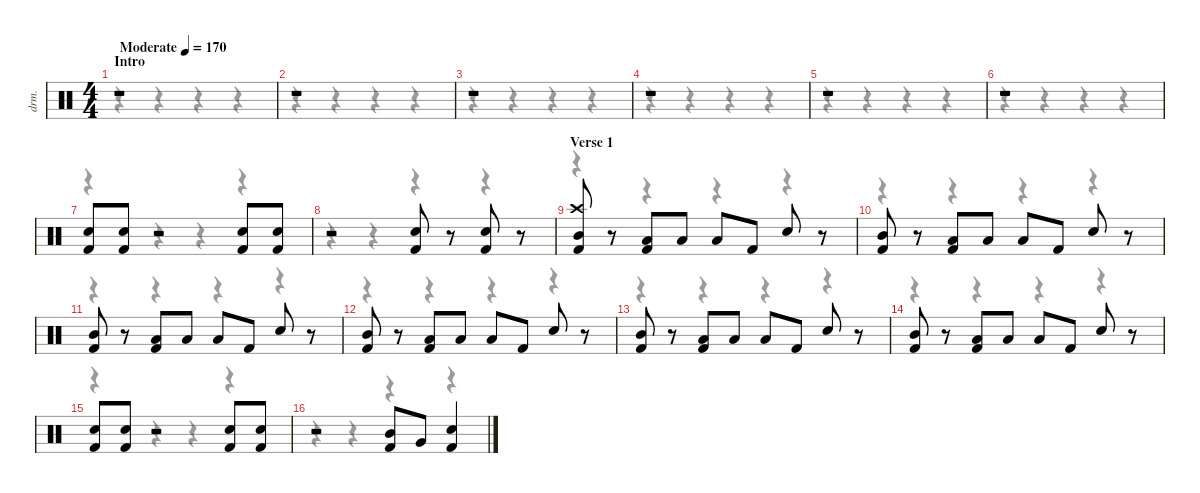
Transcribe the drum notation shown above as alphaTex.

\defaultSystemsLayout 4
\hideDynamics
\bracketExtendMode nobrackets
\otherSystemsTrackNameOrientation horizontal
\track ("Drums" "drm.") {instrument percussion}
\staff {score}
\articulation defaults
\voice
\ts (4 4)
\beaming (8 2 2 2 2)
\section ("" "Intro")
\tempo (170 "Moderate")
\clef neutral
\ks c
r.1{dy f beam Up} |
r.1{beam Up} |
r.1{beam Up} |
r.1{beam Up} |
r.1{beam Up} |
r.1{beam Up} |
("Snare (hit) 2" "Kick (hit) 2").8{beam Up} ("Snare (hit) 2" "Kick (hit) 2").8{beam Up} r.2{beam Up} ("Snare (hit) 2" "Kick (hit) 2").8{beam Up} ("Snare (hit) 2" "Kick (hit) 2").8{beam Up} |
r.2{beam Up} ("Snare (hit) 2" "Kick (hit) 2").8{beam Up} r.8{beam Up} ("Snare (hit) 2" "Kick (hit) 2").8{beam Up} r.8{beam Up} |
\section ("" "Verse 1")
("Crash high (hit)" "Mid Tom (hit)" "Kick (hit) 2").8{beam Up} r.8{beam Up} ("Low Floor Tom (hit)" "Kick (hit) 2").8{beam Up} "Low Tom (hit)".8{beam Up} "Low Floor Tom (hit)".8{beam Up} "Kick (hit) 2".8{beam Up} "Snare (hit) 2".8{beam Up} r.8{beam Up} |
("Mid Tom (hit)" "Kick (hit) 2").8{beam Up} r.8{beam Up} ("Low Floor Tom (hit)" "Kick (hit) 2").8{beam Up} "Low Tom (hit)".8{beam Up} "Low Floor Tom (hit)".8{beam Up} "Kick (hit) 2".8{beam Up} "Snare (hit) 2".8{beam Up} r.8{beam Up} |
("Mid Tom (hit)" "Kick (hit) 2").8{beam Up} r.8{beam Up} ("Low Floor Tom (hit)" "Kick (hit) 2").8{beam Up} "Low Tom (hit)".8{beam Up} "Low Floor Tom (hit)".8{beam Up} "Kick (hit) 2".8{beam Up} "Snare (hit) 2".8{beam Up} r.8{beam Up} |
("Mid Tom (hit)" "Kick (hit) 2").8{beam Up} r.8{beam Up} ("Low Floor Tom (hit)" "Kick (hit) 2").8{beam Up} "Low Tom (hit)".8{beam Up} "Low Floor Tom (hit)".8{beam Up} "Kick (hit) 2".8{beam Up} "Snare (hit) 2".8{beam Up} r.8{beam Up} |
("Mid Tom (hit)" "Kick (hit) 2").8{beam Up} r.8{beam Up} ("Low Floor Tom (hit)" "Kick (hit) 2").8{beam Up} "Low Tom (hit)".8{beam Up} "Low Floor Tom (hit)".8{beam Up} "Kick (hit) 2".8{beam Up} "Snare (hit) 2".8{beam Up} r.8{beam Up} |
("Mid Tom (hit)" "Kick (hit) 2").8{beam Up} r.8{beam Up} ("Low Floor Tom (hit)" "Kick (hit) 2").8{beam Up} "Low Tom (hit)".8{beam Up} "Low Floor Tom (hit)".8{beam Up} "Kick (hit) 2".8{beam Up} "Snare (hit) 2".8{beam Up} r.8{beam Up} |
("Snare (hit) 2" "Kick (hit) 2").8{beam Up} ("Snare (hit) 2" "Kick (hit) 2").8{beam Up} r.2{beam Up} ("Snare (hit) 2" "Kick (hit) 2").8{beam Up} ("Snare (hit) 2" "Kick (hit) 2").8{beam Up} |
r.2{beam Up} ("Mid Tom (hit)" "Kick (hit) 2").8{beam Up} "Very Low Tom (hit)".8{beam Up} ("Snare (hit) 2" "Kick (hit) 2").4{beam Up}
\voice
\clef neutral
\ottava regular
\simile none
\ks c
r.4{dy mf beam Down} r.4{beam Down} r.4{beam Down} r.4{beam Down} |
r.4{beam Down} r.4{beam Down} r.4{beam Down} r.4{beam Down} |
r.4{beam Down} r.4{beam Down} r.4{beam Down} r.4{beam Down} |
r.4{beam Down} r.4{beam Down} r.4{beam Down} r.4{beam Down} |
r.4{beam Down} r.4{beam Down} r.4{beam Down} r.4{beam Down} |
r.4{beam Down} r.4{beam Down} r.4{beam Down} r.4{beam Down} |
r.4{beam Down} r.4{beam Down} r.4{beam Down} r.4{beam Down} |
r.4{beam Down} r.4{beam Down} r.4{beam Down} r.4{beam Down} |
r.4{beam Down} r.4{beam Down} r.4{beam Down} r.4{beam Down} |
r.4{beam Down} r.4{beam Down} r.4{beam Down} r.4{beam Down} |
r.4{beam Down} r.4{beam Down} r.4{beam Down} r.4{beam Down} |
r.4{beam Down} r.4{beam Down} r.4{beam Down} r.4{beam Down} |
r.4{beam Down} r.4{beam Down} r.4{beam Down} r.4{beam Down} |
r.4{beam Down} r.4{beam Down} r.4{beam Down} r.4{beam Down} |
r.4{beam Down} r.4{beam Down} r.4{beam Down} r.4{beam Down} |
r.4{beam Down} r.4{beam Down} r.4{beam Down} r.4{beam Down}
